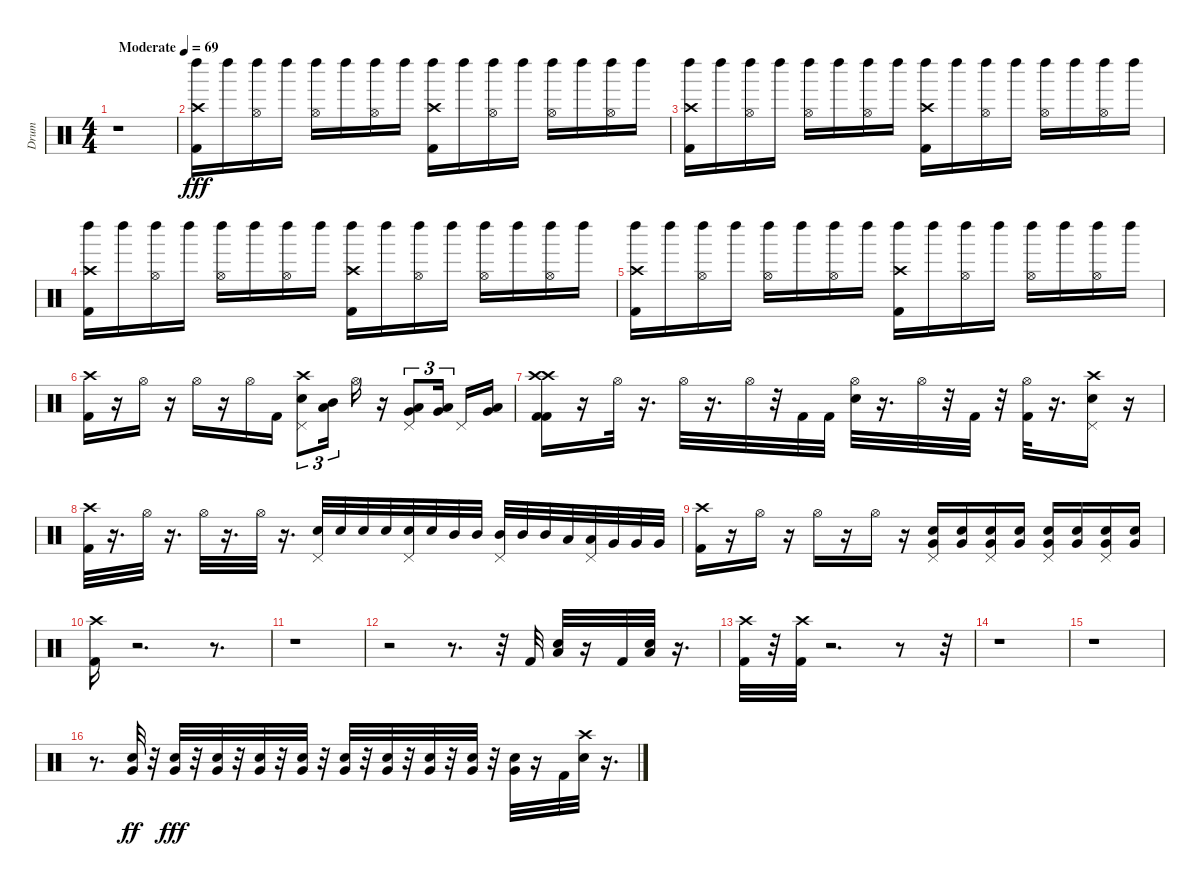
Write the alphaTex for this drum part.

\track ("Drum" "Drum") {instrument percussion}
\staff {score}
\articulation defaults
\ts (4 4)
\tempo (69 "Moderate")
\clef neutral
\ks c
r.1{dy fff} |
("Left Maraca (hit)" "Crash high (hit)" "Kick (hit) 2").16 "Left Maraca (hit)".16 ("Hi-Hat (open)" "Left Maraca (hit)").16 "Left Maraca (hit)".16 ("Hi-Hat (open)" "Left Maraca (hit)").16 "Left Maraca (hit)".16 ("Hi-Hat (open)" "Left Maraca (hit)").16 "Left Maraca (hit)".16 ("Left Maraca (hit)" "Kick (hit) 2" "Crash high (hit)").16 "Left Maraca (hit)".16 ("Hi-Hat (open)" "Left Maraca (hit)").16 "Left Maraca (hit)".16 ("Hi-Hat (open)" "Left Maraca (hit)").16 "Left Maraca (hit)".16 ("Hi-Hat (open)" "Left Maraca (hit)").16 "Left Maraca (hit)".16 |
("Left Maraca (hit)" "Crash high (hit)" "Kick (hit) 2").16 "Left Maraca (hit)".16 ("Hi-Hat (open)" "Left Maraca (hit)").16 "Left Maraca (hit)".16 ("Hi-Hat (open)" "Left Maraca (hit)").16 "Left Maraca (hit)".16 ("Hi-Hat (open)" "Left Maraca (hit)").16 "Left Maraca (hit)".16 ("Left Maraca (hit)" "Crash high (hit)" "Kick (hit) 2").16 "Left Maraca (hit)".16 ("Hi-Hat (open)" "Left Maraca (hit)").16 "Left Maraca (hit)".16 ("Hi-Hat (open)" "Left Maraca (hit)").16 "Left Maraca (hit)".16 ("Hi-Hat (open)" "Left Maraca (hit)").16 "Left Maraca (hit)".16 |
("Left Maraca (hit)" "Crash high (hit)" "Kick (hit) 2").16 "Left Maraca (hit)".16 ("Hi-Hat (open)" "Left Maraca (hit)").16 "Left Maraca (hit)".16 ("Hi-Hat (open)" "Left Maraca (hit)").16 "Left Maraca (hit)".16 ("Hi-Hat (open)" "Left Maraca (hit)").16 "Left Maraca (hit)".16 ("Left Maraca (hit)" "Kick (hit) 2" "Crash high (hit)").16 "Left Maraca (hit)".16 ("Hi-Hat (open)" "Left Maraca (hit)").16 "Left Maraca (hit)".16 ("Hi-Hat (open)" "Left Maraca (hit)").16 "Left Maraca (hit)".16 ("Hi-Hat (open)" "Left Maraca (hit)").16 "Left Maraca (hit)".16 |
("Left Maraca (hit)" "Crash high (hit)" "Kick (hit) 2").16 "Left Maraca (hit)".16 ("Hi-Hat (open)" "Left Maraca (hit)").16 "Left Maraca (hit)".16 ("Hi-Hat (open)" "Left Maraca (hit)").16 "Left Maraca (hit)".16 ("Hi-Hat (open)" "Left Maraca (hit)").16 "Left Maraca (hit)".16 ("Left Maraca (hit)" "Crash high (hit)" "Kick (hit) 2").16 "Left Maraca (hit)".16 ("Hi-Hat (open)" "Left Maraca (hit)").16 "Left Maraca (hit)".16 ("Hi-Hat (open)" "Left Maraca (hit)").16 "Left Maraca (hit)".16 ("Hi-Hat (open)" "Left Maraca (hit)").16 "Left Maraca (hit)".16 |
("Kick (hit) 2" "Crash high (hit)").16 r.16 "Hi-Hat (open)".16 r.16 "Hi-Hat (open)".16 r.16 "Hi-Hat (open)".16 "Kick (hit) 2".16 ("Crash high (hit)" "Electric Snare (hit)" "Pedal Hi-Hat (hit)").8{tu (3 2)} ("Mid Tom (hit)" "Low Tom (hit)").16{tu (3 2)} "Hi-Hat (open)".16 r.16 ("Low Tom (hit)" "Very Low Tom (hit)" "Pedal Hi-Hat (hit)").8{tu (3 2)} ("Low Tom (hit)" "Very Low Tom (hit)").16{tu (3 2) beam splitsecondary} "Pedal Hi-Hat (hit)".16 ("Very Low Tom (hit)" "Low Floor Tom (hit)").16 |
("Crash high (hit)" "Kick (hit) 2" "Crash high (hit)" "Kick (hit) 2").16 r.16 "Hi-Hat (open)".32 r.16{d} "Hi-Hat (open)".32 r.16{d} "Hi-Hat (open)".32 r.32 "Kick (hit) 2".32 "Kick (hit) 2".32 ("Electric Snare (hit)" "Hi-Hat (open)").32 r.16{d} "Hi-Hat (open)".32 r.32 "Kick (hit) 2".32 r.32 ("Hi-Hat (open)" "Kick (hit) 2").32 r.16{d} ("Electric Snare (hit)" "Crash high (hit)" "Pedal Hi-Hat (hit)").16 r.16 |
("Kick (hit) 2" "Crash high (hit)").32 r.16{d} "Hi-Hat (open)".32 r.16{d} "Hi-Hat (open)".32 r.16{d} "Hi-Hat (open)".32 r.16{d} ("Electric Snare (hit)" "Pedal Hi-Hat (hit)").32 "Electric Snare (hit)".32 "Electric Snare (hit)".32 "Electric Snare (hit)".32 ("Electric Snare (hit)" "Pedal Hi-Hat (hit)").32 "Electric Snare (hit)".32 "Mid Tom (hit)".32 "Mid Tom (hit)".32 ("Mid Tom (hit)" "Pedal Hi-Hat (hit)").32 "Mid Tom (hit)".32 "Mid Tom (hit)".32 "Low Tom (hit)".32 ("Low Tom (hit)" "Pedal Hi-Hat (hit)").32 "Very Low Tom (hit)".32 "Very Low Tom (hit)".32 "Very Low Tom (hit)".32 |
("Kick (hit) 2" "Crash high (hit)").16 r.16 "Hi-Hat (open)".16 r.16 "Hi-Hat (open)".16 r.16 "Hi-Hat (open)".16 r.16 ("Electric Snare (hit)" "Very Low Tom (hit)" "Pedal Hi-Hat (hit)").16 ("Electric Snare (hit)" "Very Low Tom (hit)").16 ("Electric Snare (hit)" "Very Low Tom (hit)" "Pedal Hi-Hat (hit)").16 ("Electric Snare (hit)" "Very Low Tom (hit)").16 ("Electric Snare (hit)" "Very Low Tom (hit)" "Pedal Hi-Hat (hit)").16 ("Electric Snare (hit)" "Very Low Tom (hit)").16 ("Electric Snare (hit)" "Very Low Tom (hit)" "Pedal Hi-Hat (hit)").16 ("Electric Snare (hit)" "Very Low Tom (hit)").16 |
("Crash high (hit)" "Kick (hit) 2").16 r.2{d} r.8{d} |
r.1 |
r.2 r.8{d} r.32 "Kick (hit) 2".32 ("Low Tom (hit)" "Electric Snare (hit)").32 r.16 "Kick (hit) 2".32 ("Electric Snare (hit)" "Low Tom (hit)").32 r.16{d} |
("Kick (hit) 2" "Crash high (hit)").32 r.32 ("Crash high (hit)" "Kick (hit) 2").32 r.2{d} r.8 r.32 |
r.1 |
r.1 |
r.8{d} ("Very Low Tom (hit)" "Electric Snare (hit)").32{dy ff} r.32 ("Electric Snare (hit)" "Very Low Tom (hit)").32{dy fff} r.32 ("Electric Snare (hit)" "Very Low Tom (hit)").32 r.32 ("Electric Snare (hit)" "Very Low Tom (hit)").32 r.32 ("Electric Snare (hit)" "Very Low Tom (hit)").32 r.32 ("Electric Snare (hit)" "Very Low Tom (hit)").32 r.32 ("Electric Snare (hit)" "Very Low Tom (hit)").32 r.32 ("Electric Snare (hit)" "Very Low Tom (hit)").32 r.32 ("Electric Snare (hit)" "Very Low Tom (hit)").32 r.32 ("Electric Snare (hit)" "Very Low Tom (hit)").32 r.16 "Kick (hit) 2".32 ("Electric Snare (hit)" "Crash high (hit)").32 r.16{d}
